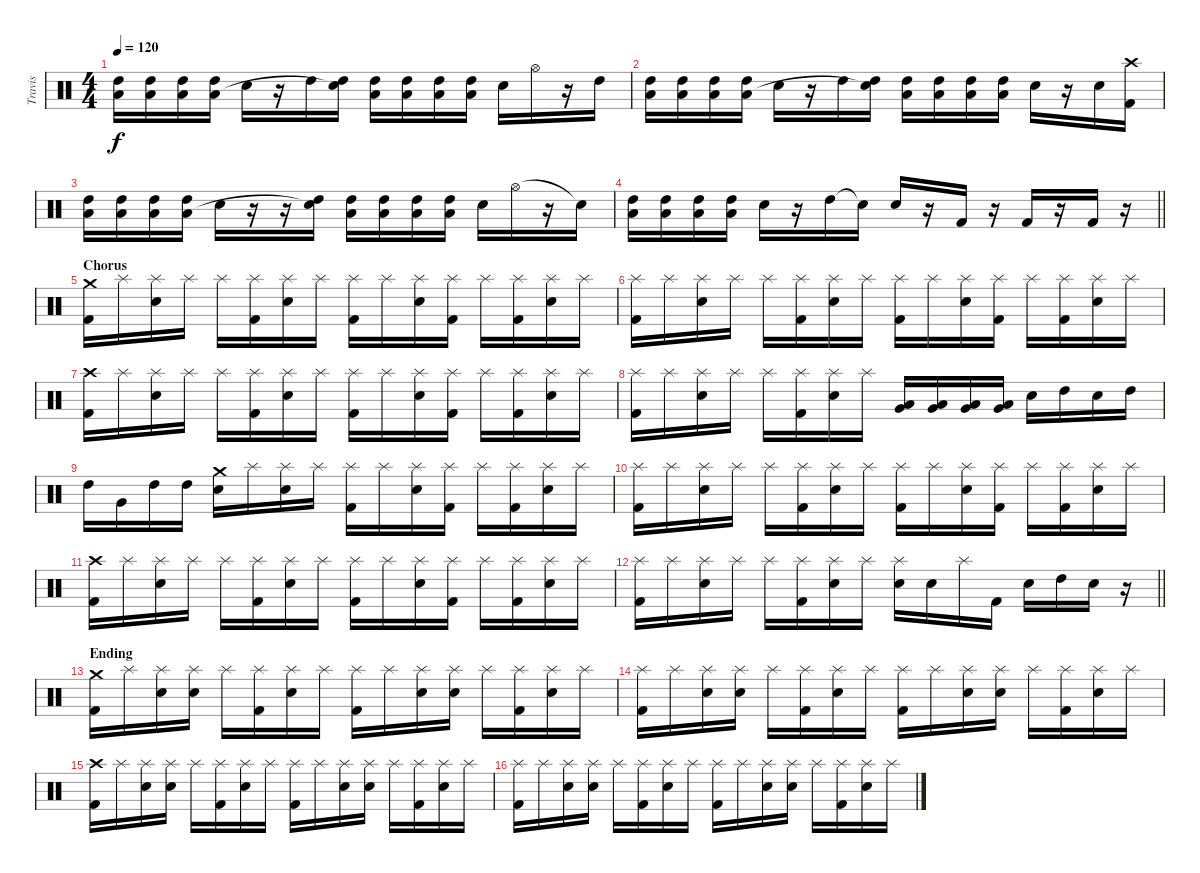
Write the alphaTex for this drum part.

\track ("Travis" "Travis") {instrument percussion}
\staff {score}
\articulation defaults
\ts (4 4)
\tempo 120
\clef neutral
\ks c
("High Tom (hit)" "Low Tom (hit)").16{dy f} ("High Tom (hit)" "Low Tom (hit)").16 ("High Tom (hit)" "Low Tom (hit)").16 ("High Tom (hit)" "Low Tom (hit)").16 "Electric Snare (hit)".16 r.16 "High Tom (hit)".16 ("High Tom (hit)" "Snare (hit)"{t}).16 ("High Tom (hit)" "Low Tom (hit)").16 ("High Tom (hit)" "Low Tom (hit)").16 ("High Tom (hit)" "Low Tom (hit)").16 ("High Tom (hit)" "Low Tom (hit)").16 "Electric Snare (hit)".16 "Hi-Hat (open)".16 r.16 "High Tom (hit)".16 |
("High Tom (hit)" "Low Tom (hit)").16 ("High Tom (hit)" "Low Tom (hit)").16 ("High Tom (hit)" "Low Tom (hit)").16 ("High Tom (hit)" "Low Tom (hit)").16 "Electric Snare (hit)".16 r.16 "High Tom (hit)".16 ("High Tom (hit)" "Snare (hit)"{t}).16 ("High Tom (hit)" "Low Tom (hit)").16 ("High Tom (hit)" "Low Tom (hit)").16 ("High Tom (hit)" "Low Tom (hit)").16 ("High Tom (hit)" "Low Tom (hit)").16 "Electric Snare (hit)".16 r.16 "Electric Snare (hit)".16 ("Crash high (hit)" "Kick (hit) 2").16 |
("High Tom (hit)" "Low Tom (hit)").16 ("High Tom (hit)" "Low Tom (hit)").16 ("High Tom (hit)" "Low Tom (hit)").16 ("High Tom (hit)" "Low Tom (hit)").16 "Electric Snare (hit)".16 r.16 r.16 ("High Tom (hit)" "Snare (hit)"{t}).16 ("High Tom (hit)" "Low Tom (hit)").16 ("High Tom (hit)" "Low Tom (hit)").16 ("High Tom (hit)" "Low Tom (hit)").16 ("High Tom (hit)" "Low Tom (hit)").16 "Electric Snare (hit)".16 "Hi-Hat (open)".16 r.16 "Snare (hit)"{t}.16 |
\barLineRight lightlight
("High Tom (hit)" "Low Tom (hit)").16 ("High Tom (hit)" "Low Tom (hit)").16 ("High Tom (hit)" "Low Tom (hit)").16 ("High Tom (hit)" "Low Tom (hit)").16 "Electric Snare (hit)".16 r.16 "High Tom (hit)".16 "Snare (hit)"{t}.16 "Electric Snare (hit)".16 r.16 "Kick (hit) 2".16 r.16 "Kick (hit) 2".16 r.16 "Kick (hit) 2".16 r.16 |
\section ("" "Chorus")
("Crash medium (hit)" "Kick (hit) 2").16 "Splash (hit)".16 ("Splash (hit)" "Electric Snare (hit)").16 "Splash (hit)".16 "Splash (hit)".16 ("Splash (hit)" "Kick (hit) 2").16 ("Splash (hit)" "Electric Snare (hit)").16 "Splash (hit)".16 ("Splash (hit)" "Kick (hit) 2").16 "Splash (hit)".16 ("Splash (hit)" "Electric Snare (hit)").16 ("Splash (hit)" "Kick (hit) 2").16 "Splash (hit)".16 ("Splash (hit)" "Kick (hit) 2").16 ("Splash (hit)" "Electric Snare (hit)").16 "Splash (hit)".16 |
("Splash (hit)" "Kick (hit) 2").16 "Splash (hit)".16 ("Splash (hit)" "Electric Snare (hit)").16 "Splash (hit)".16 "Splash (hit)".16 ("Splash (hit)" "Kick (hit) 2").16 ("Splash (hit)" "Electric Snare (hit)").16 "Splash (hit)".16 ("Splash (hit)" "Kick (hit) 2").16 "Splash (hit)".16 ("Splash (hit)" "Electric Snare (hit)").16 ("Splash (hit)" "Kick (hit) 2").16 "Splash (hit)".16 ("Splash (hit)" "Kick (hit) 2").16 ("Splash (hit)" "Electric Snare (hit)").16 "Splash (hit)".16 |
("Crash high (hit)" "Kick (hit) 2").16 "Splash (hit)".16 ("Splash (hit)" "Electric Snare (hit)").16 "Splash (hit)".16 "Splash (hit)".16 ("Splash (hit)" "Kick (hit) 2").16 ("Splash (hit)" "Electric Snare (hit)").16 "Splash (hit)".16 ("Splash (hit)" "Kick (hit) 2").16 "Splash (hit)".16 ("Splash (hit)" "Electric Snare (hit)").16 ("Splash (hit)" "Kick (hit) 2").16 "Splash (hit)".16 ("Splash (hit)" "Kick (hit) 2").16 ("Splash (hit)" "Electric Snare (hit)").16 "Splash (hit)".16 |
("Splash (hit)" "Kick (hit) 2").16 "Splash (hit)".16 ("Splash (hit)" "Electric Snare (hit)").16 "Splash (hit)".16 "Splash (hit)".16 ("Splash (hit)" "Kick (hit) 2").16 ("Splash (hit)" "Electric Snare (hit)").16 "Splash (hit)".16 ("Low Floor Tom (hit)" "Very Low Tom (hit)").16 ("Very Low Tom (hit)" "Low Tom (hit)").16 ("Low Floor Tom (hit)" "Very Low Tom (hit)").16 ("Very Low Tom (hit)" "Low Tom (hit)").16 "Electric Snare (hit)".16 "High Tom (hit)".16 "Electric Snare (hit)".16 "High Tom (hit)".16 |
"High Tom (hit)".16 "Very Low Tom (hit)".16 "High Tom (hit)".16 "High Tom (hit)".16 ("Crash medium (hit)" "Electric Snare (hit)").16 "Splash (hit)".16 ("Splash (hit)" "Electric Snare (hit)").16 "Splash (hit)".16 ("Splash (hit)" "Kick (hit) 2").16 "Splash (hit)".16 ("Splash (hit)" "Electric Snare (hit)").16 ("Splash (hit)" "Kick (hit) 2").16 "Splash (hit)".16 ("Splash (hit)" "Kick (hit) 2").16 ("Splash (hit)" "Electric Snare (hit)").16 "Splash (hit)".16 |
("Splash (hit)" "Kick (hit) 2").16 "Splash (hit)".16 ("Splash (hit)" "Electric Snare (hit)").16 "Splash (hit)".16 "Splash (hit)".16 ("Splash (hit)" "Kick (hit) 2").16 ("Splash (hit)" "Electric Snare (hit)").16 "Splash (hit)".16 ("Splash (hit)" "Kick (hit) 2").16 "Splash (hit)".16 ("Splash (hit)" "Electric Snare (hit)").16 ("Splash (hit)" "Kick (hit) 2").16 "Splash (hit)".16 ("Splash (hit)" "Kick (hit) 2").16 ("Splash (hit)" "Electric Snare (hit)").16 "Splash (hit)".16 |
("Crash high (hit)" "Kick (hit) 2").16 "Splash (hit)".16 ("Splash (hit)" "Electric Snare (hit)").16 "Splash (hit)".16 "Splash (hit)".16 ("Splash (hit)" "Kick (hit) 2").16 ("Splash (hit)" "Electric Snare (hit)").16 "Splash (hit)".16 ("Splash (hit)" "Kick (hit) 2").16 "Splash (hit)".16 ("Splash (hit)" "Electric Snare (hit)").16 ("Splash (hit)" "Kick (hit) 2").16 "Splash (hit)".16 ("Splash (hit)" "Kick (hit) 2").16 ("Splash (hit)" "Electric Snare (hit)").16 "Splash (hit)".16 |
\barLineRight lightlight
("Splash (hit)" "Kick (hit) 2").16 "Splash (hit)".16 ("Splash (hit)" "Electric Snare (hit)").16 "Splash (hit)".16 "Splash (hit)".16 ("Splash (hit)" "Kick (hit) 2").16 ("Splash (hit)" "Electric Snare (hit)").16 "Splash (hit)".16 ("Splash (hit)" "Electric Snare (hit)").16 "Electric Snare (hit)".16 "Splash (hit)".16 "Kick (hit) 2".16 "Electric Snare (hit)".16 "High Tom (hit)".16 "Electric Snare (hit)".16 r.16 |
\section ("" "Ending")
("Crash medium (hit)" "Kick (hit) 2").16 "Splash (hit)".16 ("Splash (hit)" "Electric Snare (hit)").16 ("Splash (hit)" "Electric Snare (hit)").16 "Splash (hit)".16 ("Splash (hit)" "Kick (hit) 2").16 ("Splash (hit)" "Electric Snare (hit)").16 "Splash (hit)".16 ("Splash (hit)" "Kick (hit) 2").16 "Splash (hit)".16 ("Splash (hit)" "Electric Snare (hit)").16 ("Splash (hit)" "Electric Snare (hit)").16 "Splash (hit)".16 ("Splash (hit)" "Kick (hit) 2").16 ("Splash (hit)" "Electric Snare (hit)").16 "Splash (hit)".16 |
("Splash (hit)" "Kick (hit) 2").16 "Splash (hit)".16 ("Splash (hit)" "Electric Snare (hit)").16 ("Splash (hit)" "Electric Snare (hit)").16 "Splash (hit)".16 ("Splash (hit)" "Kick (hit) 2").16 ("Splash (hit)" "Electric Snare (hit)").16 "Splash (hit)".16 ("Splash (hit)" "Kick (hit) 2").16 "Splash (hit)".16 ("Splash (hit)" "Electric Snare (hit)").16 ("Splash (hit)" "Electric Snare (hit)").16 "Splash (hit)".16 ("Splash (hit)" "Kick (hit) 2").16 ("Splash (hit)" "Electric Snare (hit)").16 "Splash (hit)".16 |
("Crash high (hit)" "Kick (hit) 2").16 "Splash (hit)".16 ("Splash (hit)" "Electric Snare (hit)").16 ("Splash (hit)" "Electric Snare (hit)").16 "Splash (hit)".16 ("Splash (hit)" "Kick (hit) 2").16 ("Splash (hit)" "Electric Snare (hit)").16 "Splash (hit)".16 ("Splash (hit)" "Kick (hit) 2").16 "Splash (hit)".16 ("Splash (hit)" "Electric Snare (hit)").16 ("Splash (hit)" "Electric Snare (hit)").16 "Splash (hit)".16 ("Splash (hit)" "Kick (hit) 2").16 ("Splash (hit)" "Electric Snare (hit)").16 "Splash (hit)".16 |
("Splash (hit)" "Kick (hit) 2").16 "Splash (hit)".16 ("Splash (hit)" "Electric Snare (hit)").16 ("Splash (hit)" "Electric Snare (hit)").16 "Splash (hit)".16 ("Splash (hit)" "Kick (hit) 2").16 ("Splash (hit)" "Electric Snare (hit)").16 "Splash (hit)".16 ("Splash (hit)" "Kick (hit) 2").16 "Splash (hit)".16 ("Splash (hit)" "Electric Snare (hit)").16 ("Splash (hit)" "Electric Snare (hit)").16 "Splash (hit)".16 ("Splash (hit)" "Kick (hit) 2").16 ("Splash (hit)" "Electric Snare (hit)").16 "Splash (hit)".16
